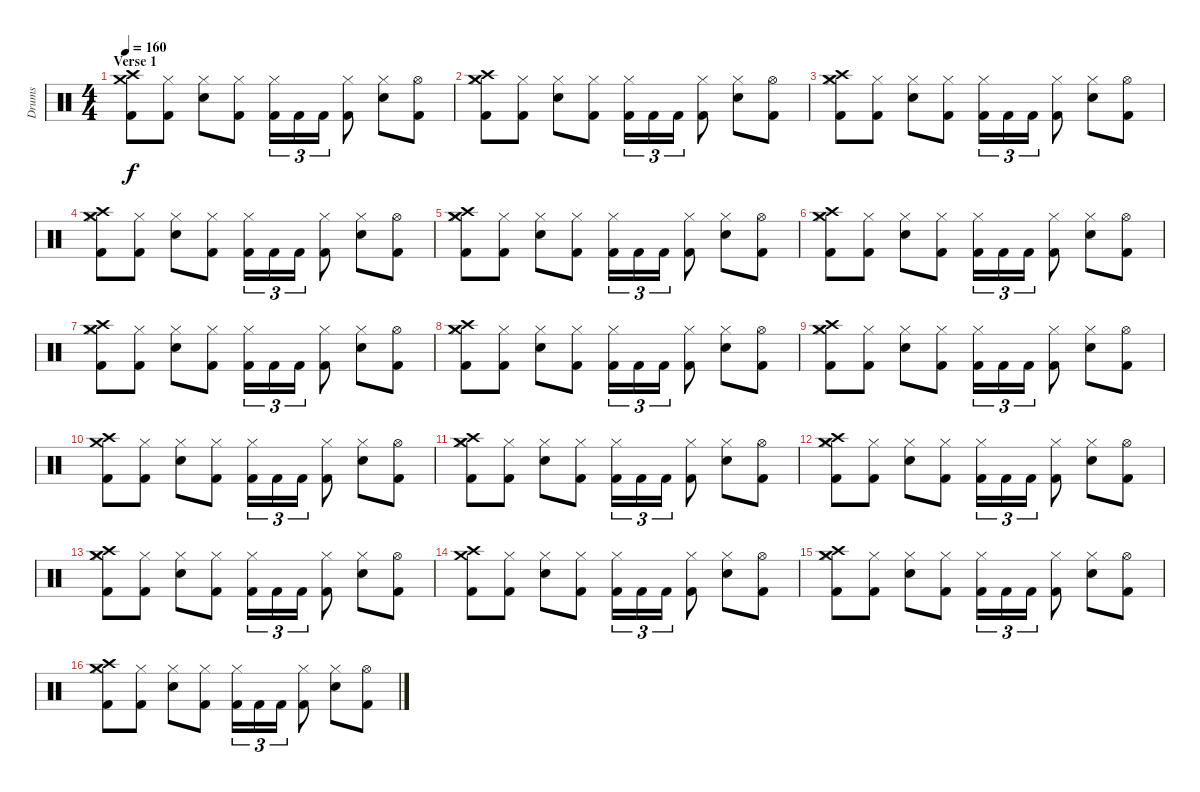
\track ("Drums" "Drums") {instrument percussion}
\staff {score}
\articulation defaults
\ts (4 4)
\section ("" "Verse 1")
\tempo 160
\clef neutral
\ks c
("Crash medium (hit)" "Crash high (hit)" "Kick (hit) 2").8{dy f} ("Hi-Hat (closed)" "Kick (hit) 2").8 ("Hi-Hat (closed)" "Electric Snare (hit)").8 ("Hi-Hat (closed)" "Kick (hit) 2").8 ("Hi-Hat (closed)" "Kick (hit) 2").16{tu (3 2)} "Kick (hit) 2".16{tu (3 2)} "Kick (hit) 2".16{tu (3 2)} ("Hi-Hat (closed)" "Kick (hit) 2").8 ("Hi-Hat (closed)" "Electric Snare (hit)").8 ("Hi-Hat (open)" "Kick (hit) 2").8 |
("Crash medium (hit)" "Crash high (hit)" "Hi-Hat (closed)" "Kick (hit) 2").8 ("Hi-Hat (closed)" "Kick (hit) 2").8 ("Hi-Hat (closed)" "Electric Snare (hit)").8 ("Hi-Hat (closed)" "Kick (hit) 2").8 ("Hi-Hat (closed)" "Kick (hit) 2").16{tu (3 2)} "Kick (hit) 2".16{tu (3 2)} "Kick (hit) 2".16{tu (3 2)} ("Hi-Hat (closed)" "Kick (hit) 2").8 ("Hi-Hat (closed)" "Electric Snare (hit)").8 ("Hi-Hat (open)" "Kick (hit) 2").8 |
("Crash medium (hit)" "Crash high (hit)" "Hi-Hat (closed)" "Kick (hit) 2").8 ("Hi-Hat (closed)" "Kick (hit) 2").8 ("Hi-Hat (closed)" "Electric Snare (hit)").8 ("Hi-Hat (closed)" "Kick (hit) 2").8 ("Hi-Hat (closed)" "Kick (hit) 2").16{tu (3 2)} "Kick (hit) 2".16{tu (3 2)} "Kick (hit) 2".16{tu (3 2)} ("Hi-Hat (closed)" "Kick (hit) 2").8 ("Hi-Hat (closed)" "Electric Snare (hit)").8 ("Hi-Hat (open)" "Kick (hit) 2").8 |
("Crash medium (hit)" "Crash high (hit)" "Hi-Hat (closed)" "Kick (hit) 2").8 ("Hi-Hat (closed)" "Kick (hit) 2").8 ("Hi-Hat (closed)" "Electric Snare (hit)").8 ("Hi-Hat (closed)" "Kick (hit) 2").8 ("Hi-Hat (closed)" "Kick (hit) 2").16{tu (3 2)} "Kick (hit) 2".16{tu (3 2)} "Kick (hit) 2".16{tu (3 2)} ("Hi-Hat (closed)" "Kick (hit) 2").8 ("Hi-Hat (closed)" "Electric Snare (hit)").8 ("Hi-Hat (open)" "Kick (hit) 2").8 |
("Crash medium (hit)" "Crash high (hit)" "Hi-Hat (closed)" "Kick (hit) 2").8 ("Hi-Hat (closed)" "Kick (hit) 2").8 ("Hi-Hat (closed)" "Electric Snare (hit)").8 ("Hi-Hat (closed)" "Kick (hit) 2").8 ("Hi-Hat (closed)" "Kick (hit) 2").16{tu (3 2)} "Kick (hit) 2".16{tu (3 2)} "Kick (hit) 2".16{tu (3 2)} ("Hi-Hat (closed)" "Kick (hit) 2").8 ("Hi-Hat (closed)" "Electric Snare (hit)").8 ("Hi-Hat (open)" "Kick (hit) 2").8 |
("Crash medium (hit)" "Crash high (hit)" "Hi-Hat (closed)" "Kick (hit) 2").8 ("Hi-Hat (closed)" "Kick (hit) 2").8 ("Hi-Hat (closed)" "Electric Snare (hit)").8 ("Hi-Hat (closed)" "Kick (hit) 2").8 ("Hi-Hat (closed)" "Kick (hit) 2").16{tu (3 2)} "Kick (hit) 2".16{tu (3 2)} "Kick (hit) 2".16{tu (3 2)} ("Hi-Hat (closed)" "Kick (hit) 2").8 ("Hi-Hat (closed)" "Electric Snare (hit)").8 ("Hi-Hat (open)" "Kick (hit) 2").8 |
("Crash medium (hit)" "Crash high (hit)" "Hi-Hat (closed)" "Kick (hit) 2").8 ("Hi-Hat (closed)" "Kick (hit) 2").8 ("Hi-Hat (closed)" "Electric Snare (hit)").8 ("Hi-Hat (closed)" "Kick (hit) 2").8 ("Hi-Hat (closed)" "Kick (hit) 2").16{tu (3 2)} "Kick (hit) 2".16{tu (3 2)} "Kick (hit) 2".16{tu (3 2)} ("Hi-Hat (closed)" "Kick (hit) 2").8 ("Hi-Hat (closed)" "Electric Snare (hit)").8 ("Hi-Hat (open)" "Kick (hit) 2").8 |
("Crash medium (hit)" "Crash high (hit)" "Hi-Hat (closed)" "Kick (hit) 2").8 ("Hi-Hat (closed)" "Kick (hit) 2").8 ("Hi-Hat (closed)" "Electric Snare (hit)").8 ("Hi-Hat (closed)" "Kick (hit) 2").8 ("Hi-Hat (closed)" "Kick (hit) 2").16{tu (3 2)} "Kick (hit) 2".16{tu (3 2)} "Kick (hit) 2".16{tu (3 2)} ("Hi-Hat (closed)" "Kick (hit) 2").8 ("Hi-Hat (closed)" "Electric Snare (hit)").8 ("Hi-Hat (open)" "Kick (hit) 2").8 |
("Crash medium (hit)" "Crash high (hit)" "Hi-Hat (closed)" "Kick (hit) 2").8 ("Hi-Hat (closed)" "Kick (hit) 2").8 ("Hi-Hat (closed)" "Electric Snare (hit)").8 ("Hi-Hat (closed)" "Kick (hit) 2").8 ("Hi-Hat (closed)" "Kick (hit) 2").16{tu (3 2)} "Kick (hit) 2".16{tu (3 2)} "Kick (hit) 2".16{tu (3 2)} ("Hi-Hat (closed)" "Kick (hit) 2").8 ("Hi-Hat (closed)" "Electric Snare (hit)").8 ("Hi-Hat (open)" "Kick (hit) 2").8 |
("Crash medium (hit)" "Crash high (hit)" "Kick (hit) 2").8 ("Hi-Hat (closed)" "Kick (hit) 2").8 ("Hi-Hat (closed)" "Electric Snare (hit)").8 ("Hi-Hat (closed)" "Kick (hit) 2").8 ("Hi-Hat (closed)" "Kick (hit) 2").16{tu (3 2)} "Kick (hit) 2".16{tu (3 2)} "Kick (hit) 2".16{tu (3 2)} ("Hi-Hat (closed)" "Kick (hit) 2").8 ("Hi-Hat (closed)" "Electric Snare (hit)").8 ("Hi-Hat (open)" "Kick (hit) 2").8 |
("Crash medium (hit)" "Crash high (hit)" "Hi-Hat (closed)" "Kick (hit) 2").8 ("Hi-Hat (closed)" "Kick (hit) 2").8 ("Hi-Hat (closed)" "Electric Snare (hit)").8 ("Hi-Hat (closed)" "Kick (hit) 2").8 ("Hi-Hat (closed)" "Kick (hit) 2").16{tu (3 2)} "Kick (hit) 2".16{tu (3 2)} "Kick (hit) 2".16{tu (3 2)} ("Hi-Hat (closed)" "Kick (hit) 2").8 ("Hi-Hat (closed)" "Electric Snare (hit)").8 ("Hi-Hat (open)" "Kick (hit) 2").8 |
("Crash medium (hit)" "Crash high (hit)" "Hi-Hat (closed)" "Kick (hit) 2").8 ("Hi-Hat (closed)" "Kick (hit) 2").8 ("Hi-Hat (closed)" "Electric Snare (hit)").8 ("Hi-Hat (closed)" "Kick (hit) 2").8 ("Hi-Hat (closed)" "Kick (hit) 2").16{tu (3 2)} "Kick (hit) 2".16{tu (3 2)} "Kick (hit) 2".16{tu (3 2)} ("Hi-Hat (closed)" "Kick (hit) 2").8 ("Hi-Hat (closed)" "Electric Snare (hit)").8 ("Hi-Hat (open)" "Kick (hit) 2").8 |
("Crash medium (hit)" "Crash high (hit)" "Hi-Hat (closed)" "Kick (hit) 2").8 ("Hi-Hat (closed)" "Kick (hit) 2").8 ("Hi-Hat (closed)" "Electric Snare (hit)").8 ("Hi-Hat (closed)" "Kick (hit) 2").8 ("Hi-Hat (closed)" "Kick (hit) 2").16{tu (3 2)} "Kick (hit) 2".16{tu (3 2)} "Kick (hit) 2".16{tu (3 2)} ("Hi-Hat (closed)" "Kick (hit) 2").8 ("Hi-Hat (closed)" "Electric Snare (hit)").8 ("Hi-Hat (open)" "Kick (hit) 2").8 |
("Crash medium (hit)" "Crash high (hit)" "Kick (hit) 2").8 ("Hi-Hat (closed)" "Kick (hit) 2").8 ("Hi-Hat (closed)" "Electric Snare (hit)").8 ("Hi-Hat (closed)" "Kick (hit) 2").8 ("Hi-Hat (closed)" "Kick (hit) 2").16{tu (3 2)} "Kick (hit) 2".16{tu (3 2)} "Kick (hit) 2".16{tu (3 2)} ("Hi-Hat (closed)" "Kick (hit) 2").8 ("Hi-Hat (closed)" "Electric Snare (hit)").8 ("Hi-Hat (open)" "Kick (hit) 2").8 |
("Crash medium (hit)" "Crash high (hit)" "Hi-Hat (closed)" "Kick (hit) 2").8 ("Hi-Hat (closed)" "Kick (hit) 2").8 ("Hi-Hat (closed)" "Electric Snare (hit)").8 ("Hi-Hat (closed)" "Kick (hit) 2").8 ("Hi-Hat (closed)" "Kick (hit) 2").16{tu (3 2)} "Kick (hit) 2".16{tu (3 2)} "Kick (hit) 2".16{tu (3 2)} ("Hi-Hat (closed)" "Kick (hit) 2").8 ("Hi-Hat (closed)" "Electric Snare (hit)").8 ("Hi-Hat (open)" "Kick (hit) 2").8 |
("Crash medium (hit)" "Crash high (hit)" "Hi-Hat (closed)" "Kick (hit) 2").8 ("Hi-Hat (closed)" "Kick (hit) 2").8 ("Hi-Hat (closed)" "Electric Snare (hit)").8 ("Hi-Hat (closed)" "Kick (hit) 2").8 ("Hi-Hat (closed)" "Kick (hit) 2").16{tu (3 2)} "Kick (hit) 2".16{tu (3 2)} "Kick (hit) 2".16{tu (3 2)} ("Hi-Hat (closed)" "Kick (hit) 2").8 ("Hi-Hat (closed)" "Electric Snare (hit)").8 ("Hi-Hat (open)" "Kick (hit) 2").8
